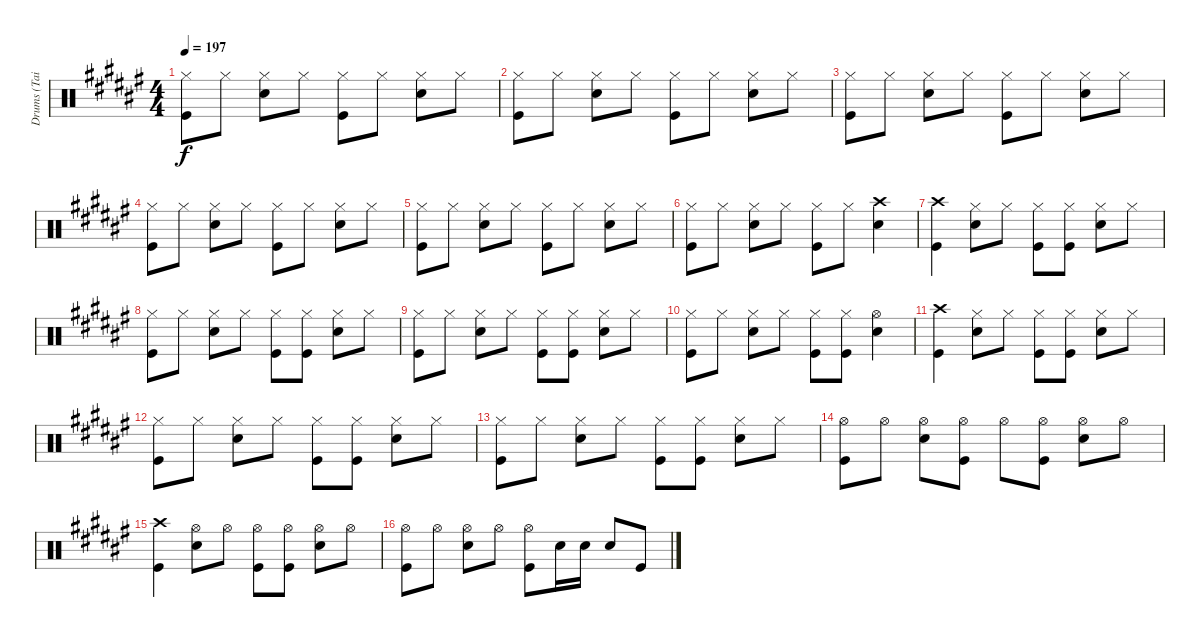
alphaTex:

\track ("Drums (Tainaka Ritsu)" "Drums (Tai") {instrument percussion}
\staff {score}
\articulation defaults
\ts (4 4)
\tempo 197
\clef neutral
\ks f#
("Hi-Hat (closed)" "Kick (hit)").8{dy f} "Hi-Hat (closed)".8 ("Hi-Hat (closed)" "Snare (hit) 2").8 "Hi-Hat (closed)".8 ("Hi-Hat (closed)" "Kick (hit)").8 "Hi-Hat (closed)".8 ("Hi-Hat (closed)" "Snare (hit) 2").8 "Hi-Hat (closed)".8 |
("Hi-Hat (closed)" "Kick (hit)").8 "Hi-Hat (closed)".8 ("Hi-Hat (closed)" "Snare (hit) 2").8 "Hi-Hat (closed)".8 ("Hi-Hat (closed)" "Kick (hit)").8 "Hi-Hat (closed)".8 ("Hi-Hat (closed)" "Snare (hit) 2").8 "Hi-Hat (closed)".8 |
("Hi-Hat (closed)" "Kick (hit)").8 "Hi-Hat (closed)".8 ("Hi-Hat (closed)" "Snare (hit) 2").8 "Hi-Hat (closed)".8 ("Hi-Hat (closed)" "Kick (hit)").8 "Hi-Hat (closed)".8 ("Hi-Hat (closed)" "Snare (hit) 2").8 "Hi-Hat (closed)".8 |
("Hi-Hat (closed)" "Kick (hit)").8 "Hi-Hat (closed)".8 ("Hi-Hat (closed)" "Snare (hit) 2").8 "Hi-Hat (closed)".8 ("Hi-Hat (closed)" "Kick (hit)").8 "Hi-Hat (closed)".8 ("Hi-Hat (closed)" "Snare (hit) 2").8 "Hi-Hat (closed)".8 |
("Hi-Hat (closed)" "Kick (hit)").8 "Hi-Hat (closed)".8 ("Hi-Hat (closed)" "Snare (hit) 2").8 "Hi-Hat (closed)".8 ("Hi-Hat (closed)" "Kick (hit)").8 "Hi-Hat (closed)".8 ("Hi-Hat (closed)" "Snare (hit) 2").8 "Hi-Hat (closed)".8 |
("Hi-Hat (closed)" "Kick (hit)").8 "Hi-Hat (closed)".8 ("Hi-Hat (closed)" "Snare (hit) 2").8 "Hi-Hat (closed)".8 ("Hi-Hat (closed)" "Kick (hit)").8 "Hi-Hat (closed)".8 ("Crash high (hit)" "Snare (hit) 2").4 |
("Crash high (hit)" "Kick (hit)").4 ("Hi-Hat (closed)" "Snare (hit) 2").8 "Hi-Hat (closed)".8 ("Hi-Hat (closed)" "Kick (hit)").8 ("Hi-Hat (closed)" "Kick (hit)").8 ("Hi-Hat (closed)" "Snare (hit) 2").8 "Hi-Hat (closed)".8 |
("Hi-Hat (closed)" "Kick (hit)").8 "Hi-Hat (closed)".8 ("Hi-Hat (closed)" "Snare (hit) 2").8 "Hi-Hat (closed)".8 ("Hi-Hat (closed)" "Kick (hit)").8 ("Hi-Hat (closed)" "Kick (hit)").8 ("Hi-Hat (closed)" "Snare (hit) 2").8 "Hi-Hat (closed)".8 |
("Hi-Hat (closed)" "Kick (hit)").8 "Hi-Hat (closed)".8 ("Hi-Hat (closed)" "Snare (hit) 2").8 "Hi-Hat (closed)".8 ("Hi-Hat (closed)" "Kick (hit)").8 ("Hi-Hat (closed)" "Kick (hit)").8 ("Hi-Hat (closed)" "Snare (hit) 2").8 "Hi-Hat (closed)".8 |
("Hi-Hat (closed)" "Kick (hit)").8 "Hi-Hat (closed)".8 ("Hi-Hat (closed)" "Snare (hit) 2").8 "Hi-Hat (closed)".8 ("Hi-Hat (closed)" "Kick (hit)").8 ("Hi-Hat (closed)" "Kick (hit)").8 ("Hi-Hat (open)" "Snare (hit) 2").4 |
("Crash high (hit)" "Kick (hit)").4 ("Hi-Hat (closed)" "Snare (hit) 2").8 "Hi-Hat (closed)".8 ("Hi-Hat (closed)" "Kick (hit)").8 ("Hi-Hat (closed)" "Kick (hit)").8 ("Hi-Hat (closed)" "Snare (hit) 2").8 "Hi-Hat (closed)".8 |
("Hi-Hat (closed)" "Kick (hit)").8 "Hi-Hat (closed)".8 ("Hi-Hat (closed)" "Snare (hit) 2").8 "Hi-Hat (closed)".8 ("Hi-Hat (closed)" "Kick (hit)").8 ("Hi-Hat (closed)" "Kick (hit)").8 ("Hi-Hat (closed)" "Snare (hit) 2").8 "Hi-Hat (closed)".8 |
("Hi-Hat (closed)" "Kick (hit)").8 "Hi-Hat (closed)".8 ("Hi-Hat (closed)" "Snare (hit) 2").8 "Hi-Hat (closed)".8 ("Hi-Hat (closed)" "Kick (hit)").8 ("Hi-Hat (closed)" "Kick (hit)").8 ("Hi-Hat (closed)" "Snare (hit) 2").8 "Hi-Hat (closed)".8 |
("Hi-Hat (open)" "Kick (hit)").8 "Hi-Hat (open)".8 ("Hi-Hat (open)" "Snare (hit) 2").8 ("Hi-Hat (open)" "Kick (hit)").8 "Hi-Hat (open)".8 ("Hi-Hat (open)" "Kick (hit)").8 ("Hi-Hat (open)" "Snare (hit) 2").8 "Hi-Hat (open)".8 |
("Crash high (hit)" "Kick (hit)").4 ("Hi-Hat (open)" "Snare (hit) 2").8 "Hi-Hat (open)".8 ("Hi-Hat (open)" "Kick (hit)").8 ("Hi-Hat (open)" "Kick (hit)").8 ("Hi-Hat (open)" "Snare (hit) 2").8 "Hi-Hat (open)".8 |
("Hi-Hat (open)" "Kick (hit)").8 "Hi-Hat (open)".8 ("Hi-Hat (open)" "Snare (hit) 2").8 "Hi-Hat (open)".8 ("Hi-Hat (open)" "Kick (hit)").8 "Snare (hit) 2".16 "Snare (hit) 2".16 "Snare (hit) 2".8 "Kick (hit)".8
